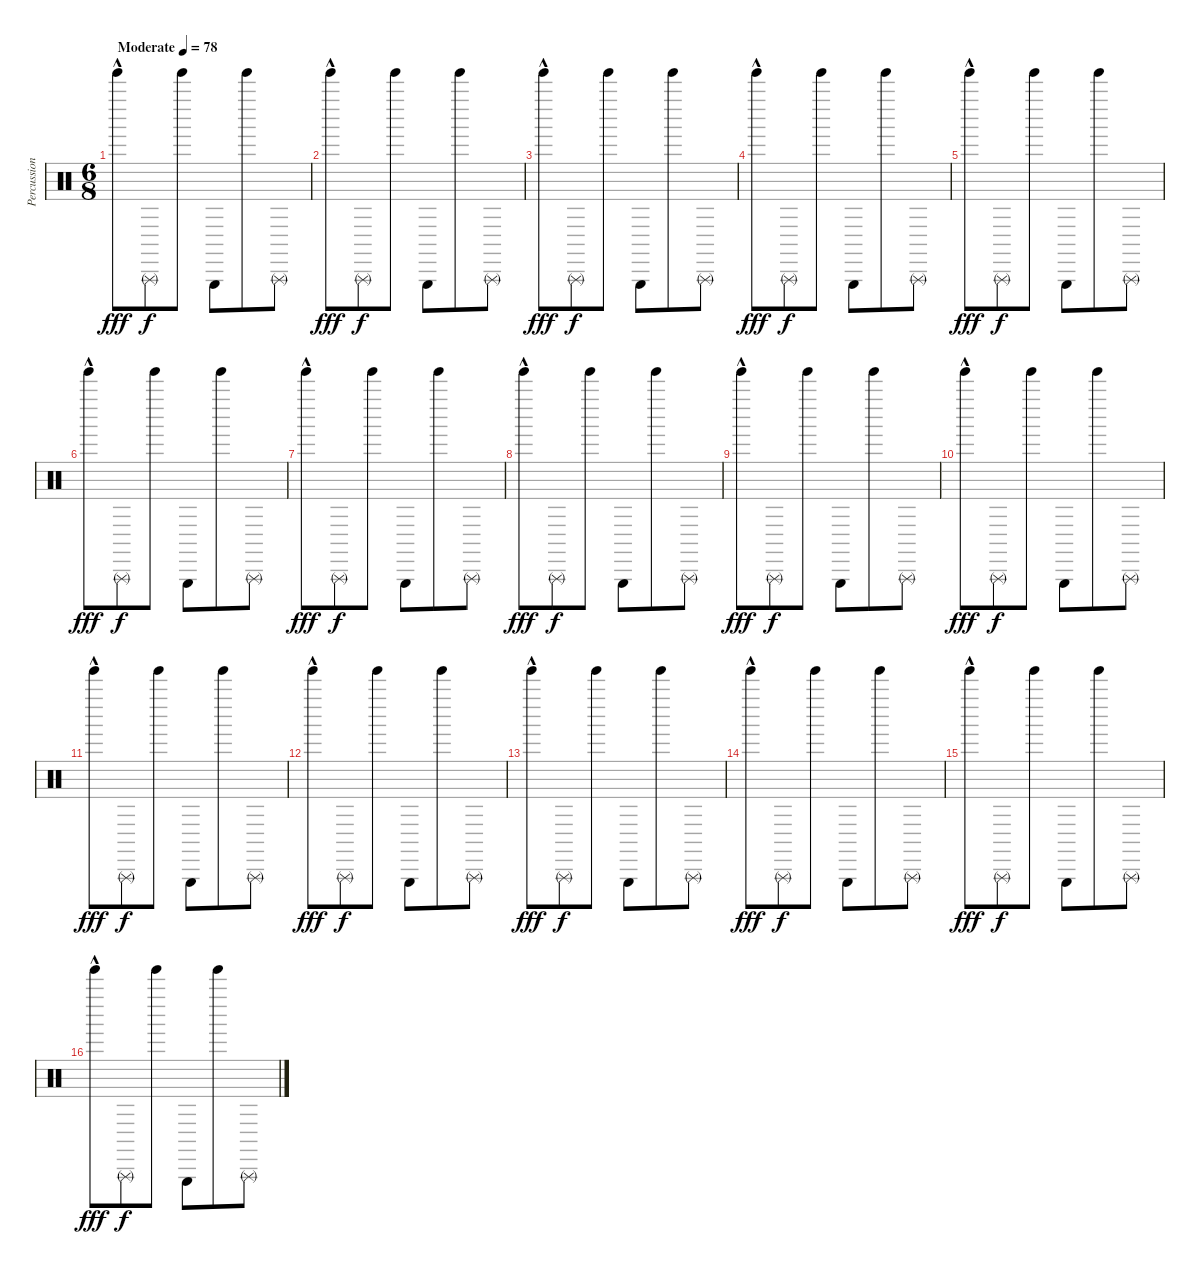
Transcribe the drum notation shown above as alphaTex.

\track ("Percussion" "Percussion") {instrument percussion}
\staff {score}
\articulation defaults
\ts (6 8)
\tempo (78 "Moderate")
\clef neutral
\ks c "Tinkle Bell (hit)"{hac}.8{dy fff} "Triangle (rnute)".8{dy f} "Tinkle Bell (hit)".8 "Triangle (hit)".8 "Tinkle Bell (hit)".8 "Triangle (rnute)".8
|
"Tinkle Bell (hit)"{hac}.8{dy fff} "Triangle (rnute)".8{dy f} "Tinkle Bell (hit)".8 "Triangle (hit)".8 "Tinkle Bell (hit)".8 "Triangle (rnute)".8 |
"Tinkle Bell (hit)"{hac}.8{dy fff} "Triangle (rnute)".8{dy f} "Tinkle Bell (hit)".8 "Triangle (hit)".8 "Tinkle Bell (hit)".8 "Triangle (rnute)".8 |
"Tinkle Bell (hit)"{hac}.8{dy fff} "Triangle (rnute)".8{dy f} "Tinkle Bell (hit)".8 "Triangle (hit)".8 "Tinkle Bell (hit)".8 "Triangle (rnute)".8 |
"Tinkle Bell (hit)"{hac}.8{dy fff} "Triangle (rnute)".8{dy f} "Tinkle Bell (hit)".8 "Triangle (hit)".8 "Tinkle Bell (hit)".8 "Triangle (rnute)".8 |
"Tinkle Bell (hit)"{hac}.8{dy fff} "Triangle (rnute)".8{dy f} "Tinkle Bell (hit)".8 "Triangle (hit)".8 "Tinkle Bell (hit)".8 "Triangle (rnute)".8 |
"Tinkle Bell (hit)"{hac}.8{dy fff} "Triangle (rnute)".8{dy f} "Tinkle Bell (hit)".8 "Triangle (hit)".8 "Tinkle Bell (hit)".8 "Triangle (rnute)".8 |
"Tinkle Bell (hit)"{hac}.8{dy fff} "Triangle (rnute)".8{dy f} "Tinkle Bell (hit)".8 "Triangle (hit)".8 "Tinkle Bell (hit)".8 "Triangle (rnute)".8 |
"Tinkle Bell (hit)"{hac}.8{dy fff} "Triangle (rnute)".8{dy f} "Tinkle Bell (hit)".8 "Triangle (hit)".8 "Tinkle Bell (hit)".8 "Triangle (rnute)".8 |
"Tinkle Bell (hit)"{hac}.8{dy fff} "Triangle (rnute)".8{dy f} "Tinkle Bell (hit)".8 "Triangle (hit)".8 "Tinkle Bell (hit)".8 "Triangle (rnute)".8 |
"Tinkle Bell (hit)"{hac}.8{dy fff} "Triangle (rnute)".8{dy f} "Tinkle Bell (hit)".8 "Triangle (hit)".8 "Tinkle Bell (hit)".8 "Triangle (rnute)".8 |
"Tinkle Bell (hit)"{hac}.8{dy fff} "Triangle (rnute)".8{dy f} "Tinkle Bell (hit)".8 "Triangle (hit)".8 "Tinkle Bell (hit)".8 "Triangle (rnute)".8 |
"Tinkle Bell (hit)"{hac}.8{dy fff} "Triangle (rnute)".8{dy f} "Tinkle Bell (hit)".8 "Triangle (hit)".8 "Tinkle Bell (hit)".8 "Triangle (rnute)".8 |
"Tinkle Bell (hit)"{hac}.8{dy fff} "Triangle (rnute)".8{dy f} "Tinkle Bell (hit)".8 "Triangle (hit)".8 "Tinkle Bell (hit)".8 "Triangle (rnute)".8 |
"Tinkle Bell (hit)"{hac}.8{dy fff} "Triangle (rnute)".8{dy f} "Tinkle Bell (hit)".8 "Triangle (hit)".8 "Tinkle Bell (hit)".8 "Triangle (rnute)".8 |
"Tinkle Bell (hit)"{hac}.8{dy fff} "Triangle (rnute)".8{dy f} "Tinkle Bell (hit)".8 "Triangle (hit)".8 "Tinkle Bell (hit)".8 "Triangle (rnute)".8
